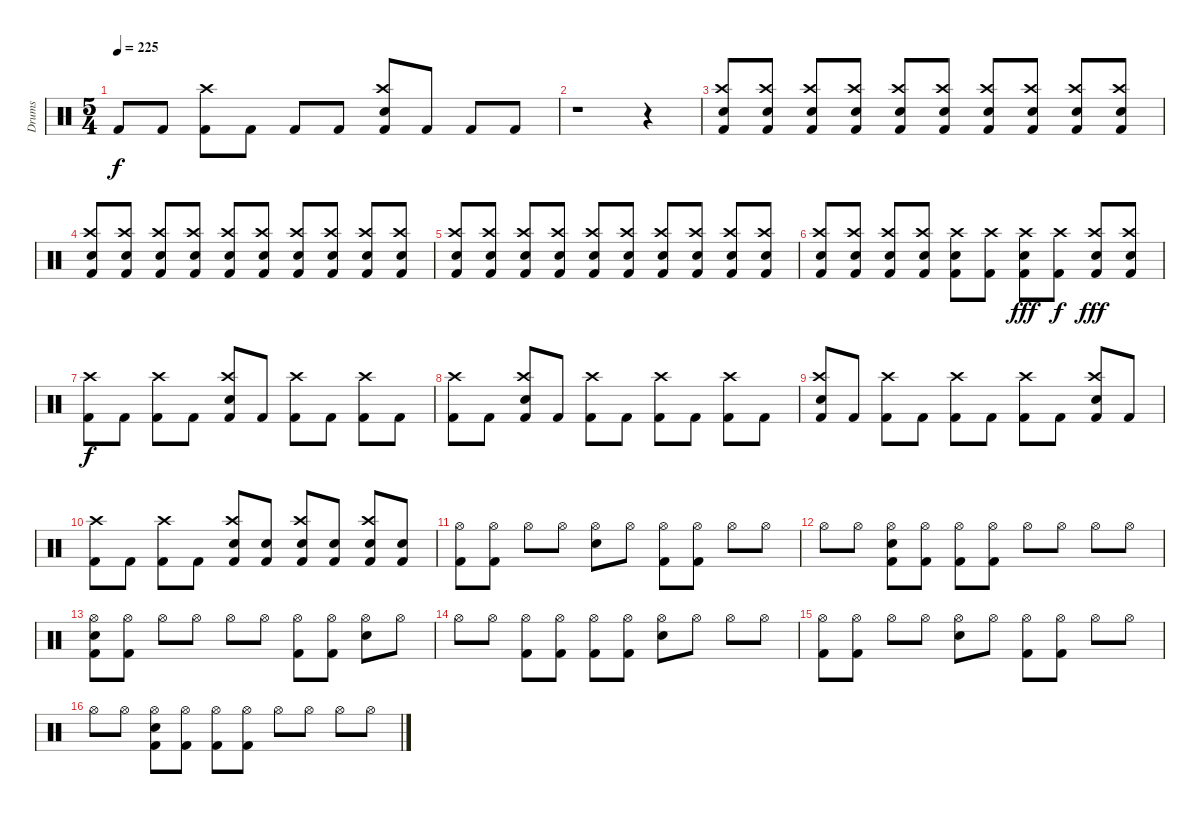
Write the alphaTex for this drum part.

\track ("Drums" "Drums") {instrument percussion}
\staff {score}
\articulation defaults
\ts (5 4)
\tempo 225
\clef neutral
\ks c "Kick (hit) 2".8{dy f} "Kick (hit) 2".8
("Crash high (hit)" "Kick (hit) 2").8 "Kick (hit) 2".8 "Kick (hit) 2".8 "Kick (hit) 2".8 ("Crash high (hit)" "Electric Snare (hit)" "Kick (hit) 2").8 "Kick (hit) 2".8 "Kick (hit) 2".8 "Kick (hit) 2".8 |
r.1 r.4 |
("Crash high (hit)" "Electric Snare (hit)" "Kick (hit) 2").8 ("Crash high (hit)" "Electric Snare (hit)" "Kick (hit) 2").8 ("Crash high (hit)" "Electric Snare (hit)" "Kick (hit) 2").8 ("Crash high (hit)" "Electric Snare (hit)" "Kick (hit) 2").8 ("Crash high (hit)" "Electric Snare (hit)" "Kick (hit) 2").8 ("Crash high (hit)" "Electric Snare (hit)" "Kick (hit) 2").8 ("Crash high (hit)" "Electric Snare (hit)" "Kick (hit) 2").8 ("Crash high (hit)" "Electric Snare (hit)" "Kick (hit) 2").8 ("Crash high (hit)" "Electric Snare (hit)" "Kick (hit) 2").8 ("Crash high (hit)" "Electric Snare (hit)" "Kick (hit) 2").8 |
("Crash high (hit)" "Electric Snare (hit)" "Kick (hit) 2").8 ("Crash high (hit)" "Electric Snare (hit)" "Kick (hit) 2").8 ("Crash high (hit)" "Electric Snare (hit)" "Kick (hit) 2").8 ("Crash high (hit)" "Electric Snare (hit)" "Kick (hit) 2").8 ("Crash high (hit)" "Electric Snare (hit)" "Kick (hit) 2").8 ("Crash high (hit)" "Electric Snare (hit)" "Kick (hit) 2").8 ("Crash high (hit)" "Electric Snare (hit)" "Kick (hit) 2").8 ("Crash high (hit)" "Electric Snare (hit)" "Kick (hit) 2").8 ("Crash high (hit)" "Electric Snare (hit)" "Kick (hit) 2").8 ("Crash high (hit)" "Electric Snare (hit)" "Kick (hit) 2").8 |
("Crash high (hit)" "Electric Snare (hit)" "Kick (hit) 2").8 ("Crash high (hit)" "Electric Snare (hit)" "Kick (hit) 2").8 ("Crash high (hit)" "Electric Snare (hit)" "Kick (hit) 2").8 ("Crash high (hit)" "Electric Snare (hit)" "Kick (hit) 2").8 ("Crash high (hit)" "Electric Snare (hit)" "Kick (hit) 2").8 ("Crash high (hit)" "Electric Snare (hit)" "Kick (hit) 2").8 ("Crash high (hit)" "Electric Snare (hit)" "Kick (hit) 2").8 ("Crash high (hit)" "Electric Snare (hit)" "Kick (hit) 2").8 ("Crash high (hit)" "Electric Snare (hit)" "Kick (hit) 2").8 ("Crash high (hit)" "Electric Snare (hit)" "Kick (hit) 2").8 |
("Crash high (hit)" "Electric Snare (hit)" "Kick (hit) 2").8 ("Crash high (hit)" "Electric Snare (hit)" "Kick (hit) 2").8 ("Crash high (hit)" "Electric Snare (hit)" "Kick (hit) 2").8 ("Crash high (hit)" "Electric Snare (hit)" "Kick (hit) 2").8 ("Crash high (hit)" "Electric Snare (hit)" "Kick (hit) 2").8 ("Crash high (hit)" "Kick (hit) 2").8 ("Crash high (hit)" "Electric Snare (hit)" "Kick (hit) 2").8{dy fff} ("Crash high (hit)" "Kick (hit) 2").8{dy f} ("Crash high (hit)" "Electric Snare (hit)" "Kick (hit) 2").8{dy fff} ("Crash high (hit)" "Electric Snare (hit)" "Kick (hit) 2").8 |
("Crash high (hit)" "Kick (hit) 2").8{dy f} "Kick (hit) 2".8 ("Crash high (hit)" "Kick (hit) 2").8 "Kick (hit) 2".8 ("Crash high (hit)" "Electric Snare (hit)" "Kick (hit) 2").8 "Kick (hit) 2".8 ("Crash high (hit)" "Kick (hit) 2").8 "Kick (hit) 2".8 ("Crash high (hit)" "Kick (hit) 2").8 "Kick (hit) 2".8 |
("Crash high (hit)" "Kick (hit) 2").8 "Kick (hit) 2".8 ("Crash high (hit)" "Electric Snare (hit)" "Kick (hit) 2").8 "Kick (hit) 2".8 ("Crash high (hit)" "Kick (hit) 2").8 "Kick (hit) 2".8 ("Crash high (hit)" "Kick (hit) 2").8 "Kick (hit) 2".8 ("Crash high (hit)" "Kick (hit) 2").8 "Kick (hit) 2".8 |
("Crash high (hit)" "Electric Snare (hit)" "Kick (hit) 2").8 "Kick (hit) 2".8 ("Crash high (hit)" "Kick (hit) 2").8 "Kick (hit) 2".8 ("Crash high (hit)" "Kick (hit) 2").8 "Kick (hit) 2".8 ("Crash high (hit)" "Kick (hit) 2").8 "Kick (hit) 2".8 ("Crash high (hit)" "Electric Snare (hit)" "Kick (hit) 2").8 "Kick (hit) 2".8 |
("Crash high (hit)" "Kick (hit) 2").8 "Kick (hit) 2".8 ("Crash high (hit)" "Kick (hit) 2").8 "Kick (hit) 2".8 ("Crash high (hit)" "Electric Snare (hit)" "Kick (hit) 2").8 ("Electric Snare (hit)" "Kick (hit) 2").8 ("Crash high (hit)" "Electric Snare (hit)" "Kick (hit) 2").8 ("Electric Snare (hit)" "Kick (hit) 2").8 ("Crash high (hit)" "Electric Snare (hit)" "Kick (hit) 2").8 ("Electric Snare (hit)" "Kick (hit) 2").8 |
("Hi-Hat (open)" "Kick (hit) 2").8 ("Hi-Hat (open)" "Kick (hit) 2").8 "Hi-Hat (open)".8 "Hi-Hat (open)".8 ("Hi-Hat (open)" "Electric Snare (hit)").8 "Hi-Hat (open)".8 ("Hi-Hat (open)" "Kick (hit) 2").8 ("Hi-Hat (open)" "Kick (hit) 2").8 "Hi-Hat (open)".8 "Hi-Hat (open)".8 |
"Hi-Hat (open)".8 "Hi-Hat (open)".8 ("Hi-Hat (open)" "Electric Snare (hit)" "Kick (hit) 2").8 ("Hi-Hat (open)" "Kick (hit) 2").8 ("Hi-Hat (open)" "Kick (hit) 2").8 ("Hi-Hat (open)" "Kick (hit) 2").8 "Hi-Hat (open)".8 "Hi-Hat (open)".8 "Hi-Hat (open)".8 "Hi-Hat (open)".8 |
("Hi-Hat (open)" "Electric Snare (hit)" "Kick (hit) 2").8 ("Hi-Hat (open)" "Kick (hit) 2").8 "Hi-Hat (open)".8 "Hi-Hat (open)".8 "Hi-Hat (open)".8 "Hi-Hat (open)".8 ("Hi-Hat (open)" "Kick (hit) 2").8 ("Hi-Hat (open)" "Kick (hit) 2").8 ("Hi-Hat (open)" "Electric Snare (hit)").8 "Hi-Hat (open)".8 |
"Hi-Hat (open)".8 "Hi-Hat (open)".8 ("Hi-Hat (open)" "Kick (hit) 2").8 ("Hi-Hat (open)" "Kick (hit) 2").8 ("Hi-Hat (open)" "Kick (hit) 2").8 ("Hi-Hat (open)" "Kick (hit) 2").8 ("Hi-Hat (open)" "Electric Snare (hit)").8 "Hi-Hat (open)".8 "Hi-Hat (open)".8 "Hi-Hat (open)".8 |
("Hi-Hat (open)" "Kick (hit) 2").8 ("Hi-Hat (open)" "Kick (hit) 2").8 "Hi-Hat (open)".8 "Hi-Hat (open)".8 ("Hi-Hat (open)" "Electric Snare (hit)").8 "Hi-Hat (open)".8 ("Hi-Hat (open)" "Kick (hit) 2").8 ("Hi-Hat (open)" "Kick (hit) 2").8 "Hi-Hat (open)".8 "Hi-Hat (open)".8 |
"Hi-Hat (open)".8 "Hi-Hat (open)".8 ("Hi-Hat (open)" "Electric Snare (hit)" "Kick (hit) 2").8 ("Hi-Hat (open)" "Kick (hit) 2").8 ("Hi-Hat (open)" "Kick (hit) 2").8 ("Hi-Hat (open)" "Kick (hit) 2").8 "Hi-Hat (open)".8 "Hi-Hat (open)".8 "Hi-Hat (open)".8 "Hi-Hat (open)".8
